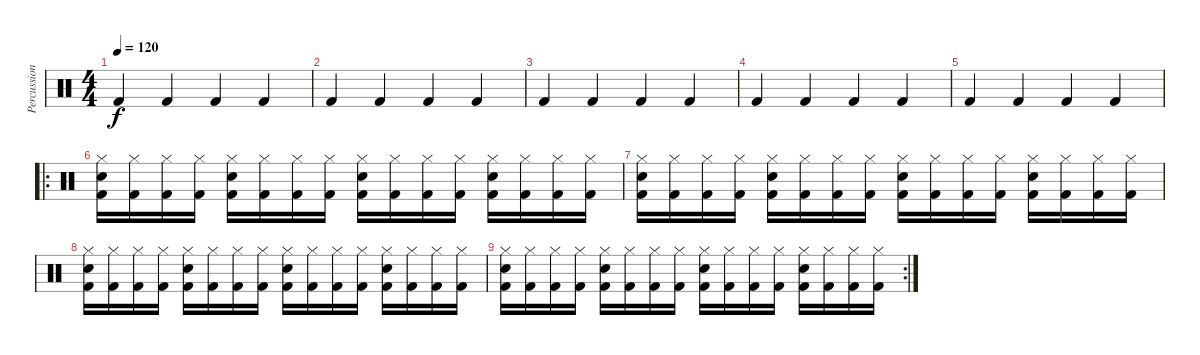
\track ("Percussion" "Percussion") {instrument percussion}
\staff {score}
\articulation defaults
\ts (4 4)
\tempo 120
\clef neutral
\ks c "Kick (hit) 2".4{dy f} "Kick (hit) 2".4 "Kick (hit) 2".4 "Kick (hit) 2".4
|
"Kick (hit) 2".4 "Kick (hit) 2".4 "Kick (hit) 2".4 "Kick (hit) 2".4 |
"Kick (hit) 2".4 "Kick (hit) 2".4 "Kick (hit) 2".4 "Kick (hit) 2".4 |
"Kick (hit) 2".4 "Kick (hit) 2".4 "Kick (hit) 2".4 "Kick (hit) 2".4 |
"Kick (hit) 2".4 "Kick (hit) 2".4 "Kick (hit) 2".4 "Kick (hit) 2".4 |
\ro
("Hi-Hat (closed)" "Snare (hit) 2" "Kick (hit) 2").16 ("Hi-Hat (closed)" "Kick (hit) 2").16 ("Hi-Hat (closed)" "Kick (hit) 2").16 ("Hi-Hat (closed)" "Kick (hit) 2").16 ("Hi-Hat (closed)" "Snare (hit) 2" "Kick (hit) 2").16 ("Hi-Hat (closed)" "Kick (hit) 2").16 ("Hi-Hat (closed)" "Kick (hit) 2").16 ("Hi-Hat (closed)" "Kick (hit) 2").16 ("Hi-Hat (closed)" "Snare (hit) 2" "Kick (hit) 2").16 ("Hi-Hat (closed)" "Kick (hit) 2").16 ("Hi-Hat (closed)" "Kick (hit) 2").16 ("Hi-Hat (closed)" "Kick (hit) 2").16 ("Hi-Hat (closed)" "Snare (hit) 2" "Kick (hit) 2").16 ("Hi-Hat (closed)" "Kick (hit) 2").16 ("Hi-Hat (closed)" "Kick (hit) 2").16 ("Hi-Hat (closed)" "Kick (hit) 2").16 |
("Hi-Hat (closed)" "Snare (hit) 2" "Kick (hit) 2").16 ("Hi-Hat (closed)" "Kick (hit) 2").16 ("Hi-Hat (closed)" "Kick (hit) 2").16 ("Hi-Hat (closed)" "Kick (hit) 2").16 ("Hi-Hat (closed)" "Snare (hit) 2" "Kick (hit) 2").16 ("Hi-Hat (closed)" "Kick (hit) 2").16 ("Hi-Hat (closed)" "Kick (hit) 2").16 ("Hi-Hat (closed)" "Kick (hit) 2").16 ("Hi-Hat (closed)" "Snare (hit) 2" "Kick (hit) 2").16 ("Hi-Hat (closed)" "Kick (hit) 2").16 ("Hi-Hat (closed)" "Kick (hit) 2").16 ("Hi-Hat (closed)" "Kick (hit) 2").16 ("Hi-Hat (closed)" "Snare (hit) 2" "Kick (hit) 2").16 ("Hi-Hat (closed)" "Kick (hit) 2").16 ("Hi-Hat (closed)" "Kick (hit) 2").16 ("Hi-Hat (closed)" "Kick (hit) 2").16 |
("Hi-Hat (closed)" "Snare (hit) 2" "Kick (hit) 2").16 ("Hi-Hat (closed)" "Kick (hit) 2").16 ("Hi-Hat (closed)" "Kick (hit) 2").16 ("Hi-Hat (closed)" "Kick (hit) 2").16 ("Hi-Hat (closed)" "Snare (hit) 2" "Kick (hit) 2").16 ("Hi-Hat (closed)" "Kick (hit) 2").16 ("Hi-Hat (closed)" "Kick (hit) 2").16 ("Hi-Hat (closed)" "Kick (hit) 2").16 ("Hi-Hat (closed)" "Snare (hit) 2" "Kick (hit) 2").16 ("Hi-Hat (closed)" "Kick (hit) 2").16 ("Hi-Hat (closed)" "Kick (hit) 2").16 ("Hi-Hat (closed)" "Kick (hit) 2").16 ("Hi-Hat (closed)" "Snare (hit) 2" "Kick (hit) 2").16 ("Hi-Hat (closed)" "Kick (hit) 2").16 ("Hi-Hat (closed)" "Kick (hit) 2").16 ("Hi-Hat (closed)" "Kick (hit) 2").16 |
\rc 2
("Hi-Hat (closed)" "Snare (hit) 2" "Kick (hit) 2").16 ("Hi-Hat (closed)" "Kick (hit) 2").16 ("Hi-Hat (closed)" "Kick (hit) 2").16 ("Hi-Hat (closed)" "Kick (hit) 2").16 ("Hi-Hat (closed)" "Snare (hit) 2" "Kick (hit) 2").16 ("Hi-Hat (closed)" "Kick (hit) 2").16 ("Hi-Hat (closed)" "Kick (hit) 2").16 ("Hi-Hat (closed)" "Kick (hit) 2").16 ("Hi-Hat (closed)" "Snare (hit) 2" "Kick (hit) 2").16 ("Hi-Hat (closed)" "Kick (hit) 2").16 ("Hi-Hat (closed)" "Kick (hit) 2").16 ("Hi-Hat (closed)" "Kick (hit) 2").16 ("Hi-Hat (closed)" "Snare (hit) 2" "Kick (hit) 2").16 ("Hi-Hat (closed)" "Kick (hit) 2").16 ("Hi-Hat (closed)" "Kick (hit) 2").16 ("Hi-Hat (closed)" "Kick (hit) 2").16
